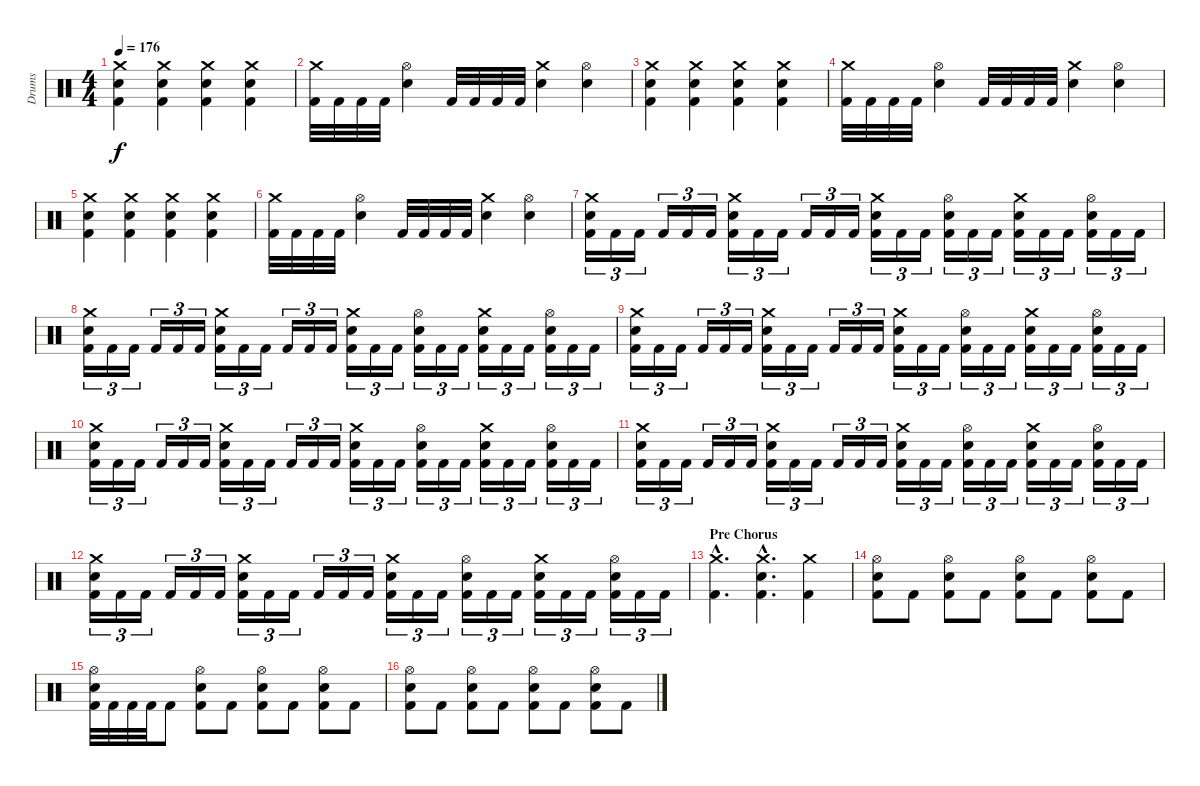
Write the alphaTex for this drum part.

\track ("Drums" "Drums") {instrument percussion}
\staff {score}
\articulation defaults
\ts (4 4)
\tempo 176
\clef neutral
\ks c
("Crash medium (hit)" "Snare (hit) 2" "Kick (hit) 2").4{dy f} ("Crash medium (hit)" "Snare (hit) 2" "Kick (hit) 2").4 ("Crash medium (hit)" "Snare (hit) 2" "Kick (hit) 2").4 ("Crash medium (hit)" "Snare (hit) 2" "Kick (hit) 2").4 |
("Crash medium (hit)" "Kick (hit) 2").32 "Kick (hit) 2".32 "Kick (hit) 2".32 "Kick (hit) 2".32 ("Hi-Hat (open)" "Snare (hit) 2").4 "Kick (hit) 2".32 "Kick (hit) 2".32 "Kick (hit) 2".32 "Kick (hit) 2".32 ("Crash medium (hit)" "Snare (hit) 2").4 ("Hi-Hat (open)" "Snare (hit) 2").4 |
("Crash medium (hit)" "Snare (hit) 2" "Kick (hit) 2").4 ("Crash medium (hit)" "Snare (hit) 2" "Kick (hit) 2").4 ("Crash medium (hit)" "Snare (hit) 2" "Kick (hit) 2").4 ("Crash medium (hit)" "Snare (hit) 2" "Kick (hit) 2").4 |
("Crash medium (hit)" "Kick (hit) 2").32 "Kick (hit) 2".32 "Kick (hit) 2".32 "Kick (hit) 2".32 ("Hi-Hat (open)" "Snare (hit) 2").4 "Kick (hit) 2".32 "Kick (hit) 2".32 "Kick (hit) 2".32 "Kick (hit) 2".32 ("Crash medium (hit)" "Snare (hit) 2").4 ("Hi-Hat (open)" "Snare (hit) 2").4 |
("Crash medium (hit)" "Snare (hit) 2" "Kick (hit) 2").4 ("Crash medium (hit)" "Snare (hit) 2" "Kick (hit) 2").4 ("Crash medium (hit)" "Snare (hit) 2" "Kick (hit) 2").4 ("Crash medium (hit)" "Snare (hit) 2" "Kick (hit) 2").4 |
("Crash medium (hit)" "Kick (hit) 2").32 "Kick (hit) 2".32 "Kick (hit) 2".32 "Kick (hit) 2".32 ("Hi-Hat (open)" "Snare (hit) 2").4 "Kick (hit) 2".32 "Kick (hit) 2".32 "Kick (hit) 2".32 "Kick (hit) 2".32 ("Crash medium (hit)" "Snare (hit) 2").4 ("Hi-Hat (open)" "Snare (hit) 2").4 |
("Crash medium (hit)" "Snare (hit) 2" "Kick (hit) 2").16{tu (3 2)} "Kick (hit) 2".16{tu (3 2)} "Kick (hit) 2".16{tu (3 2)} "Kick (hit) 2".16{tu (3 2)} "Kick (hit) 2".16{tu (3 2)} "Kick (hit) 2".16{tu (3 2)} ("Crash medium (hit)" "Snare (hit) 2" "Kick (hit) 2").16{tu (3 2)} "Kick (hit) 2".16{tu (3 2)} "Kick (hit) 2".16{tu (3 2)} "Kick (hit) 2".16{tu (3 2)} "Kick (hit) 2".16{tu (3 2)} "Kick (hit) 2".16{tu (3 2)} ("Crash medium (hit)" "Snare (hit) 2" "Kick (hit) 2").16{tu (3 2)} "Kick (hit) 2".16{tu (3 2)} "Kick (hit) 2".16{tu (3 2)} ("Hi-Hat (open)" "Snare (hit) 2" "Kick (hit) 2").16{tu (3 2)} "Kick (hit) 2".16{tu (3 2)} "Kick (hit) 2".16{tu (3 2)} ("Crash medium (hit)" "Snare (hit) 2" "Kick (hit) 2").16{tu (3 2)} "Kick (hit) 2".16{tu (3 2)} "Kick (hit) 2".16{tu (3 2)} ("Hi-Hat (open)" "Snare (hit) 2" "Kick (hit) 2").16{tu (3 2)} "Kick (hit) 2".16{tu (3 2)} "Kick (hit) 2".16{tu (3 2)} |
("Crash medium (hit)" "Snare (hit) 2" "Kick (hit) 2").16{tu (3 2)} "Kick (hit) 2".16{tu (3 2)} "Kick (hit) 2".16{tu (3 2)} "Kick (hit) 2".16{tu (3 2)} "Kick (hit) 2".16{tu (3 2)} "Kick (hit) 2".16{tu (3 2)} ("Crash medium (hit)" "Snare (hit) 2" "Kick (hit) 2").16{tu (3 2)} "Kick (hit) 2".16{tu (3 2)} "Kick (hit) 2".16{tu (3 2)} "Kick (hit) 2".16{tu (3 2)} "Kick (hit) 2".16{tu (3 2)} "Kick (hit) 2".16{tu (3 2)} ("Crash medium (hit)" "Snare (hit) 2" "Kick (hit) 2").16{tu (3 2)} "Kick (hit) 2".16{tu (3 2)} "Kick (hit) 2".16{tu (3 2)} ("Hi-Hat (open)" "Snare (hit) 2" "Kick (hit) 2").16{tu (3 2)} "Kick (hit) 2".16{tu (3 2)} "Kick (hit) 2".16{tu (3 2)} ("Crash medium (hit)" "Snare (hit) 2" "Kick (hit) 2").16{tu (3 2)} "Kick (hit) 2".16{tu (3 2)} "Kick (hit) 2".16{tu (3 2)} ("Hi-Hat (open)" "Snare (hit) 2" "Kick (hit) 2").16{tu (3 2)} "Kick (hit) 2".16{tu (3 2)} "Kick (hit) 2".16{tu (3 2)} |
("Crash medium (hit)" "Snare (hit) 2" "Kick (hit) 2").16{tu (3 2)} "Kick (hit) 2".16{tu (3 2)} "Kick (hit) 2".16{tu (3 2)} "Kick (hit) 2".16{tu (3 2)} "Kick (hit) 2".16{tu (3 2)} "Kick (hit) 2".16{tu (3 2)} ("Crash medium (hit)" "Snare (hit) 2" "Kick (hit) 2").16{tu (3 2)} "Kick (hit) 2".16{tu (3 2)} "Kick (hit) 2".16{tu (3 2)} "Kick (hit) 2".16{tu (3 2)} "Kick (hit) 2".16{tu (3 2)} "Kick (hit) 2".16{tu (3 2)} ("Crash medium (hit)" "Snare (hit) 2" "Kick (hit) 2").16{tu (3 2)} "Kick (hit) 2".16{tu (3 2)} "Kick (hit) 2".16{tu (3 2)} ("Hi-Hat (open)" "Snare (hit) 2" "Kick (hit) 2").16{tu (3 2)} "Kick (hit) 2".16{tu (3 2)} "Kick (hit) 2".16{tu (3 2)} ("Crash medium (hit)" "Snare (hit) 2" "Kick (hit) 2").16{tu (3 2)} "Kick (hit) 2".16{tu (3 2)} "Kick (hit) 2".16{tu (3 2)} ("Hi-Hat (open)" "Snare (hit) 2" "Kick (hit) 2").16{tu (3 2)} "Kick (hit) 2".16{tu (3 2)} "Kick (hit) 2".16{tu (3 2)} |
("Crash medium (hit)" "Snare (hit) 2" "Kick (hit) 2").16{tu (3 2)} "Kick (hit) 2".16{tu (3 2)} "Kick (hit) 2".16{tu (3 2)} "Kick (hit) 2".16{tu (3 2)} "Kick (hit) 2".16{tu (3 2)} "Kick (hit) 2".16{tu (3 2)} ("Crash medium (hit)" "Snare (hit) 2" "Kick (hit) 2").16{tu (3 2)} "Kick (hit) 2".16{tu (3 2)} "Kick (hit) 2".16{tu (3 2)} "Kick (hit) 2".16{tu (3 2)} "Kick (hit) 2".16{tu (3 2)} "Kick (hit) 2".16{tu (3 2)} ("Crash medium (hit)" "Snare (hit) 2" "Kick (hit) 2").16{tu (3 2)} "Kick (hit) 2".16{tu (3 2)} "Kick (hit) 2".16{tu (3 2)} ("Hi-Hat (open)" "Snare (hit) 2" "Kick (hit) 2").16{tu (3 2)} "Kick (hit) 2".16{tu (3 2)} "Kick (hit) 2".16{tu (3 2)} ("Crash medium (hit)" "Snare (hit) 2" "Kick (hit) 2").16{tu (3 2)} "Kick (hit) 2".16{tu (3 2)} "Kick (hit) 2".16{tu (3 2)} ("Hi-Hat (open)" "Snare (hit) 2" "Kick (hit) 2").16{tu (3 2)} "Kick (hit) 2".16{tu (3 2)} "Kick (hit) 2".16{tu (3 2)} |
("Crash medium (hit)" "Snare (hit) 2" "Kick (hit) 2").16{tu (3 2)} "Kick (hit) 2".16{tu (3 2)} "Kick (hit) 2".16{tu (3 2)} "Kick (hit) 2".16{tu (3 2)} "Kick (hit) 2".16{tu (3 2)} "Kick (hit) 2".16{tu (3 2)} ("Crash medium (hit)" "Snare (hit) 2" "Kick (hit) 2").16{tu (3 2)} "Kick (hit) 2".16{tu (3 2)} "Kick (hit) 2".16{tu (3 2)} "Kick (hit) 2".16{tu (3 2)} "Kick (hit) 2".16{tu (3 2)} "Kick (hit) 2".16{tu (3 2)} ("Crash medium (hit)" "Snare (hit) 2" "Kick (hit) 2").16{tu (3 2)} "Kick (hit) 2".16{tu (3 2)} "Kick (hit) 2".16{tu (3 2)} ("Hi-Hat (open)" "Snare (hit) 2" "Kick (hit) 2").16{tu (3 2)} "Kick (hit) 2".16{tu (3 2)} "Kick (hit) 2".16{tu (3 2)} ("Crash medium (hit)" "Snare (hit) 2" "Kick (hit) 2").16{tu (3 2)} "Kick (hit) 2".16{tu (3 2)} "Kick (hit) 2".16{tu (3 2)} ("Hi-Hat (open)" "Snare (hit) 2" "Kick (hit) 2").16{tu (3 2)} "Kick (hit) 2".16{tu (3 2)} "Kick (hit) 2".16{tu (3 2)} |
("Crash medium (hit)" "Snare (hit) 2" "Kick (hit) 2").16{tu (3 2)} "Kick (hit) 2".16{tu (3 2)} "Kick (hit) 2".16{tu (3 2)} "Kick (hit) 2".16{tu (3 2)} "Kick (hit) 2".16{tu (3 2)} "Kick (hit) 2".16{tu (3 2)} ("Crash medium (hit)" "Snare (hit) 2" "Kick (hit) 2").16{tu (3 2)} "Kick (hit) 2".16{tu (3 2)} "Kick (hit) 2".16{tu (3 2)} "Kick (hit) 2".16{tu (3 2)} "Kick (hit) 2".16{tu (3 2)} "Kick (hit) 2".16{tu (3 2)} ("Crash medium (hit)" "Snare (hit) 2" "Kick (hit) 2").16{tu (3 2)} "Kick (hit) 2".16{tu (3 2)} "Kick (hit) 2".16{tu (3 2)} ("Hi-Hat (open)" "Snare (hit) 2" "Kick (hit) 2").16{tu (3 2)} "Kick (hit) 2".16{tu (3 2)} "Kick (hit) 2".16{tu (3 2)} ("Crash medium (hit)" "Snare (hit) 2" "Kick (hit) 2").16{tu (3 2)} "Kick (hit) 2".16{tu (3 2)} "Kick (hit) 2".16{tu (3 2)} ("Hi-Hat (open)" "Snare (hit) 2" "Kick (hit) 2").16{tu (3 2)} "Kick (hit) 2".16{tu (3 2)} "Kick (hit) 2".16{tu (3 2)} |
\section ("" "Pre Chorus")
("Crash medium (hit)"{hac} "Kick (hit) 2"{hac}).4{d} ("Crash medium (hit)"{hac} "Snare (hit) 2"{hac} "Kick (hit) 2"{hac}).4{d} ("Crash medium (hit)" "Kick (hit) 2").4 |
("Hi-Hat (open)" "Snare (hit) 2" "Kick (hit) 2").8 "Kick (hit) 2".8 ("Hi-Hat (open)" "Snare (hit) 2" "Kick (hit) 2").8 "Kick (hit) 2".8 ("Hi-Hat (open)" "Snare (hit) 2" "Kick (hit) 2").8 "Kick (hit) 2".8 ("Hi-Hat (open)" "Snare (hit) 2" "Kick (hit) 2").8 "Kick (hit) 2".8 |
("Hi-Hat (open)" "Snare (hit) 2" "Kick (hit) 2").32 "Kick (hit) 2".32 "Kick (hit) 2".32 "Kick (hit) 2".32 "Kick (hit) 2".8 ("Hi-Hat (open)" "Snare (hit) 2" "Kick (hit) 2").8 "Kick (hit) 2".8 ("Hi-Hat (open)" "Snare (hit) 2" "Kick (hit) 2").8 "Kick (hit) 2".8 ("Hi-Hat (open)" "Snare (hit) 2" "Kick (hit) 2").8 "Kick (hit) 2".8 |
("Hi-Hat (open)" "Snare (hit) 2" "Kick (hit) 2").8 "Kick (hit) 2".8 ("Hi-Hat (open)" "Snare (hit) 2" "Kick (hit) 2").8 "Kick (hit) 2".8 ("Hi-Hat (open)" "Snare (hit) 2" "Kick (hit) 2").8 "Kick (hit) 2".8 ("Hi-Hat (open)" "Snare (hit) 2" "Kick (hit) 2").8 "Kick (hit) 2".8
